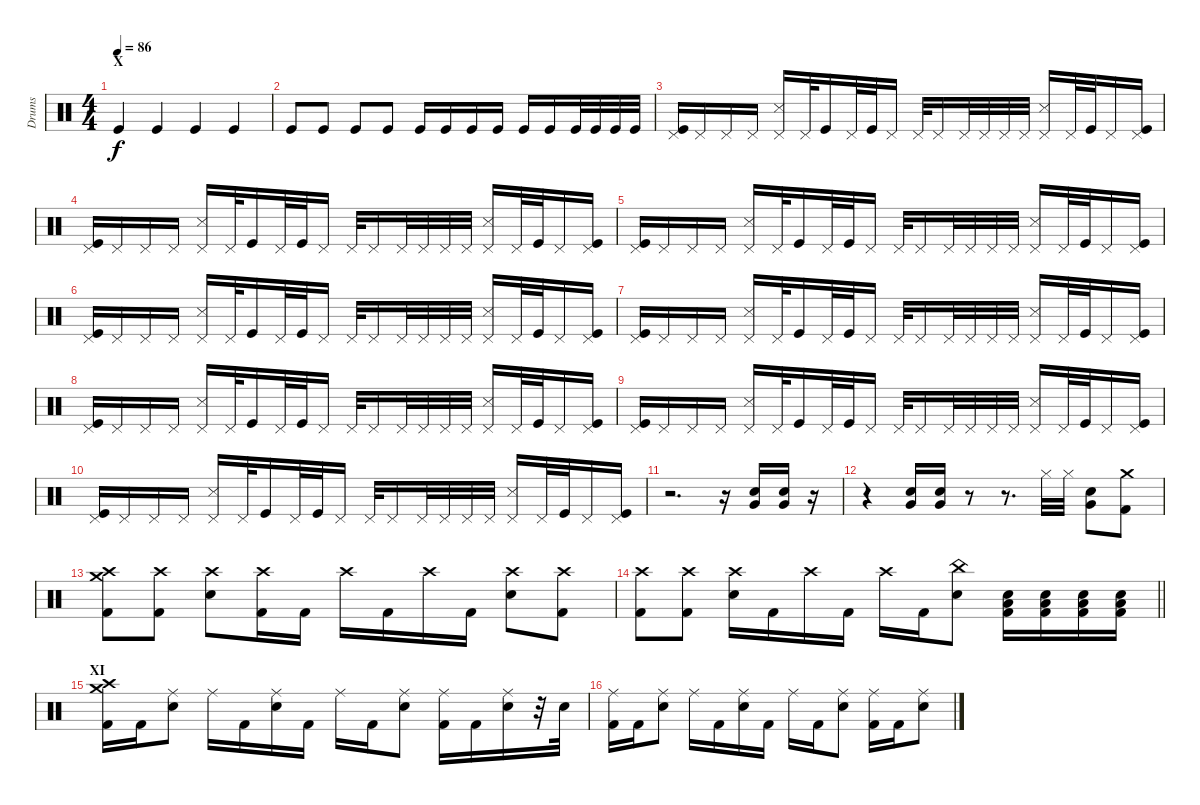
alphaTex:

\track ("Drums" "Drums") {instrument percussion}
\staff {score}
\articulation defaults
\ts (4 4)
\section ("" "X")
\tempo 86
\clef neutral
\ks c "Kick (hit)".4{dy f} "Kick (hit)".4 "Kick (hit)".4 "Kick (hit)".4
|
"Kick (hit)".8 "Kick (hit)".8 "Kick (hit)".8 "Kick (hit)".8 "Kick (hit)".16 "Kick (hit)".16 "Kick (hit)".16 "Kick (hit)".16 "Kick (hit)".16 "Kick (hit)".16 "Kick (hit)".32 "Kick (hit)".32 "Kick (hit)".32 "Kick (hit)".32 |
("Pedal Hi-Hat (hit)" "Kick (hit)").16 "Pedal Hi-Hat (hit)".16 "Pedal Hi-Hat (hit)".16 "Pedal Hi-Hat (hit)".16 ("Pedal Hi-Hat (hit)" "Snare (side stick) 3").16 "Pedal Hi-Hat (hit)".32 "Kick (hit)".16 "Pedal Hi-Hat (hit)".32 "Kick (hit)".32 "Pedal Hi-Hat (hit)".16 "Pedal Hi-Hat (hit)".32 "Pedal Hi-Hat (hit)".16 "Pedal Hi-Hat (hit)".32 "Pedal Hi-Hat (hit)".32 "Pedal Hi-Hat (hit)".32 "Pedal Hi-Hat (hit)".32 ("Pedal Hi-Hat (hit)" "Snare (side stick) 3").16 "Pedal Hi-Hat (hit)".32 "Kick (hit)".32 "Pedal Hi-Hat (hit)".16 ("Pedal Hi-Hat (hit)" "Kick (hit)").16 |
("Pedal Hi-Hat (hit)" "Kick (hit)").16 "Pedal Hi-Hat (hit)".16 "Pedal Hi-Hat (hit)".16 "Pedal Hi-Hat (hit)".16 ("Pedal Hi-Hat (hit)" "Snare (side stick) 3").16 "Pedal Hi-Hat (hit)".32 "Kick (hit)".16 "Pedal Hi-Hat (hit)".32 "Kick (hit)".32 "Pedal Hi-Hat (hit)".16 "Pedal Hi-Hat (hit)".32 "Pedal Hi-Hat (hit)".16 "Pedal Hi-Hat (hit)".32 "Pedal Hi-Hat (hit)".32 "Pedal Hi-Hat (hit)".32 "Pedal Hi-Hat (hit)".32 ("Pedal Hi-Hat (hit)" "Snare (side stick) 3").16 "Pedal Hi-Hat (hit)".32 "Kick (hit)".32 "Pedal Hi-Hat (hit)".16 ("Pedal Hi-Hat (hit)" "Kick (hit)").16 |
("Pedal Hi-Hat (hit)" "Kick (hit)").16 "Pedal Hi-Hat (hit)".16 "Pedal Hi-Hat (hit)".16 "Pedal Hi-Hat (hit)".16 ("Pedal Hi-Hat (hit)" "Snare (side stick) 3").16 "Pedal Hi-Hat (hit)".32 "Kick (hit)".16 "Pedal Hi-Hat (hit)".32 "Kick (hit)".32 "Pedal Hi-Hat (hit)".16 "Pedal Hi-Hat (hit)".32 "Pedal Hi-Hat (hit)".16 "Pedal Hi-Hat (hit)".32 "Pedal Hi-Hat (hit)".32 "Pedal Hi-Hat (hit)".32 "Pedal Hi-Hat (hit)".32 ("Pedal Hi-Hat (hit)" "Snare (side stick) 3").16 "Pedal Hi-Hat (hit)".32 "Kick (hit)".32 "Pedal Hi-Hat (hit)".16 ("Pedal Hi-Hat (hit)" "Kick (hit)").16 |
("Pedal Hi-Hat (hit)" "Kick (hit)").16 "Pedal Hi-Hat (hit)".16 "Pedal Hi-Hat (hit)".16 "Pedal Hi-Hat (hit)".16 ("Pedal Hi-Hat (hit)" "Snare (side stick) 3").16 "Pedal Hi-Hat (hit)".32 "Kick (hit)".16 "Pedal Hi-Hat (hit)".32 "Kick (hit)".32 "Pedal Hi-Hat (hit)".16 "Pedal Hi-Hat (hit)".32 "Pedal Hi-Hat (hit)".16 "Pedal Hi-Hat (hit)".32 "Pedal Hi-Hat (hit)".32 "Pedal Hi-Hat (hit)".32 "Pedal Hi-Hat (hit)".32 ("Pedal Hi-Hat (hit)" "Snare (side stick) 3").16 "Pedal Hi-Hat (hit)".32 "Kick (hit)".32 "Pedal Hi-Hat (hit)".16 ("Pedal Hi-Hat (hit)" "Kick (hit)").16 |
("Pedal Hi-Hat (hit)" "Kick (hit)").16 "Pedal Hi-Hat (hit)".16 "Pedal Hi-Hat (hit)".16 "Pedal Hi-Hat (hit)".16 ("Pedal Hi-Hat (hit)" "Snare (side stick) 3").16 "Pedal Hi-Hat (hit)".32 "Kick (hit)".16 "Pedal Hi-Hat (hit)".32 "Kick (hit)".32 "Pedal Hi-Hat (hit)".16 "Pedal Hi-Hat (hit)".32 "Pedal Hi-Hat (hit)".16 "Pedal Hi-Hat (hit)".32 "Pedal Hi-Hat (hit)".32 "Pedal Hi-Hat (hit)".32 "Pedal Hi-Hat (hit)".32 ("Pedal Hi-Hat (hit)" "Snare (side stick) 3").16 "Pedal Hi-Hat (hit)".32 "Kick (hit)".32 "Pedal Hi-Hat (hit)".16 ("Pedal Hi-Hat (hit)" "Kick (hit)").16 |
("Pedal Hi-Hat (hit)" "Kick (hit)").16 "Pedal Hi-Hat (hit)".16 "Pedal Hi-Hat (hit)".16 "Pedal Hi-Hat (hit)".16 ("Pedal Hi-Hat (hit)" "Snare (side stick) 3").16 "Pedal Hi-Hat (hit)".32 "Kick (hit)".16 "Pedal Hi-Hat (hit)".32 "Kick (hit)".32 "Pedal Hi-Hat (hit)".16 "Pedal Hi-Hat (hit)".32 "Pedal Hi-Hat (hit)".16 "Pedal Hi-Hat (hit)".32 "Pedal Hi-Hat (hit)".32 "Pedal Hi-Hat (hit)".32 "Pedal Hi-Hat (hit)".32 ("Pedal Hi-Hat (hit)" "Snare (side stick) 3").16 "Pedal Hi-Hat (hit)".32 "Kick (hit)".32 "Pedal Hi-Hat (hit)".16 ("Pedal Hi-Hat (hit)" "Kick (hit)").16 |
("Pedal Hi-Hat (hit)" "Kick (hit)").16 "Pedal Hi-Hat (hit)".16 "Pedal Hi-Hat (hit)".16 "Pedal Hi-Hat (hit)".16 ("Pedal Hi-Hat (hit)" "Snare (side stick) 3").16 "Pedal Hi-Hat (hit)".32 "Kick (hit)".16 "Pedal Hi-Hat (hit)".32 "Kick (hit)".32 "Pedal Hi-Hat (hit)".16 "Pedal Hi-Hat (hit)".32 "Pedal Hi-Hat (hit)".16 "Pedal Hi-Hat (hit)".32 "Pedal Hi-Hat (hit)".32 "Pedal Hi-Hat (hit)".32 "Pedal Hi-Hat (hit)".32 ("Pedal Hi-Hat (hit)" "Snare (side stick) 3").16 "Pedal Hi-Hat (hit)".32 "Kick (hit)".32 "Pedal Hi-Hat (hit)".16 ("Pedal Hi-Hat (hit)" "Kick (hit)").16 |
("Pedal Hi-Hat (hit)" "Kick (hit)").16 "Pedal Hi-Hat (hit)".16 "Pedal Hi-Hat (hit)".16 "Pedal Hi-Hat (hit)".16 ("Pedal Hi-Hat (hit)" "Snare (side stick) 3").16 "Pedal Hi-Hat (hit)".32 "Kick (hit)".16 "Pedal Hi-Hat (hit)".32 "Kick (hit)".32 "Pedal Hi-Hat (hit)".16 "Pedal Hi-Hat (hit)".32 "Pedal Hi-Hat (hit)".16 "Pedal Hi-Hat (hit)".32 "Pedal Hi-Hat (hit)".32 "Pedal Hi-Hat (hit)".32 "Pedal Hi-Hat (hit)".32 ("Pedal Hi-Hat (hit)" "Snare (side stick) 3").16 "Pedal Hi-Hat (hit)".32 "Kick (hit)".32 "Pedal Hi-Hat (hit)".16 ("Pedal Hi-Hat (hit)" "Kick (hit)").16 |
r.2{d} r.16 ("Electric Snare (hit)" "Very Low Tom (hit)").16 ("Electric Snare (hit)" "Very Low Tom (hit)").16 r.16 |
r.4 ("Electric Snare (hit)" "Very Low Tom (hit)").16 ("Electric Snare (hit)" "Very Low Tom (hit)").16 r.8 r.8{d} "Hi-Hat (closed)".32 "Hi-Hat (closed)".32 ("Electric Snare (hit)" "Very Low Tom (hit)").8 ("Kick (hit) 2" "Crash medium (hit)").8 |
("Kick (hit) 2" "Crash medium (hit)" "Crash high (hit)").8 ("Crash high (hit)" "Kick (hit) 2").8 ("Crash high (hit)" "Electric Snare (hit)").8 ("Crash high (hit)" "Kick (hit) 2").16 "Kick (hit) 2".16 "Crash high (hit)".16 "Kick (hit) 2".16 "Crash high (hit)".16 "Kick (hit) 2".16 ("Crash high (hit)" "Electric Snare (hit)").8 ("Crash high (hit)" "Kick (hit) 2").8 |
\barLineRight lightlight
("Crash high (hit)" "Kick (hit) 2").8 ("Crash high (hit)" "Kick (hit) 2").8 ("Crash high (hit)" "Electric Snare (hit)").16 "Kick (hit) 2".16 "Crash high (hit)".16 "Kick (hit) 2".16 "Crash high (hit)".16 "Kick (hit) 2".16 ("China (hit)" "Electric Snare (hit)").8 ("Electric Snare (hit)" "Low Floor Tom (hit)" "Kick (hit) 2").16 ("Electric Snare (hit)" "Low Floor Tom (hit)" "Kick (hit) 2").16 ("Electric Snare (hit)" "Low Floor Tom (hit)" "Kick (hit) 2").16 ("Electric Snare (hit)" "Low Floor Tom (hit)" "Kick (hit) 2").16 |
\section ("" "XI")
("Kick (hit) 2" "Crash high (hit)" "Crash medium (hit)").16 "Kick (hit) 2".16 ("Ride (middle)" "Electric Snare (hit)").8 "Ride (middle)".16 "Kick (hit) 2".16 ("Ride (middle)" "Electric Snare (hit)").16 "Kick (hit) 2".16 "Ride (middle)".16 "Kick (hit) 2".16 ("Ride (middle)" "Electric Snare (hit)").8 ("Ride (middle)" "Kick (hit) 2").16 "Kick (hit) 2".16 ("Ride (middle)" "Electric Snare (hit)").16 r.32 "Electric Snare (hit)".32 |
("Ride (middle)" "Kick (hit) 2").16 "Kick (hit) 2".16 ("Ride (middle)" "Electric Snare (hit)").8 "Ride (middle)".16 "Kick (hit) 2".16 ("Ride (middle)" "Electric Snare (hit)").16 "Kick (hit) 2".16 "Ride (middle)".16 "Kick (hit) 2".16 ("Ride (middle)" "Electric Snare (hit)").8 ("Ride (middle)" "Kick (hit) 2").16 "Kick (hit) 2".16 ("Ride (middle)" "Electric Snare (hit)").8
